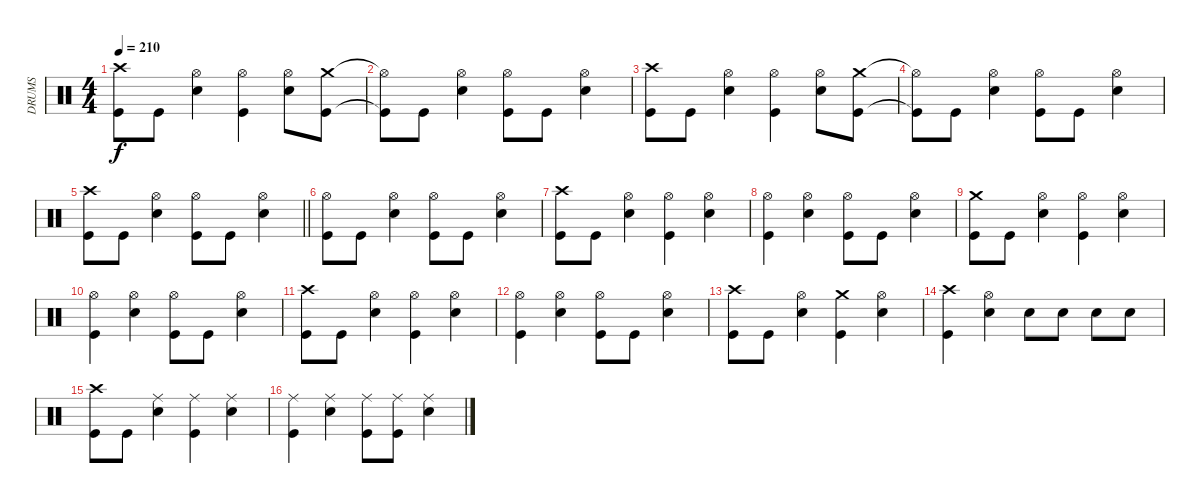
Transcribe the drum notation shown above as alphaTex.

\track ("DRUMS" "DRUMS") {instrument percussion}
\staff {score}
\articulation defaults
\ts (4 4)
\tempo 210
\clef neutral
\ks c
("Crash high (hit)" "Kick (hit)").8{dy f} "Kick (hit)".8 ("Hi-Hat (open)" "Snare (hit) 2").4 ("Hi-Hat (open)" "Kick (hit)").4 ("Hi-Hat (open)" "Snare (hit) 2").8 ("Crash medium (hit)" "Kick (hit)").8 |
("Hi-Hat (open)"{t} "Kick (hit)"{t}).8 "Kick (hit)".8 ("Hi-Hat (open)" "Snare (hit) 2").4 ("Hi-Hat (open)" "Kick (hit)").8 "Kick (hit)".8 ("Hi-Hat (open)" "Snare (hit) 2").4 |
("Crash high (hit)" "Kick (hit)").8 "Kick (hit)".8 ("Hi-Hat (open)" "Snare (hit) 2").4 ("Hi-Hat (open)" "Kick (hit)").4 ("Hi-Hat (open)" "Snare (hit) 2").8 ("Crash medium (hit)" "Kick (hit)").8 |
("Hi-Hat (open)"{t} "Kick (hit)"{t}).8 "Kick (hit)".8 ("Hi-Hat (open)" "Snare (hit) 2").4 ("Hi-Hat (open)" "Kick (hit)").8 "Kick (hit)".8 ("Hi-Hat (open)" "Snare (hit) 2").4 |
\barLineRight lightlight
("Crash high (hit)" "Kick (hit)").8 "Kick (hit)".8 ("Hi-Hat (open)" "Snare (hit) 2").4 ("Hi-Hat (open)" "Kick (hit)").8 "Kick (hit)".8 ("Hi-Hat (open)" "Snare (hit) 2").4 |
("Hi-Hat (open)" "Kick (hit)").8 "Kick (hit)".8 ("Hi-Hat (open)" "Snare (hit) 2").4 ("Hi-Hat (open)" "Kick (hit)").8 "Kick (hit)".8 ("Hi-Hat (open)" "Snare (hit) 2").4 |
("Crash high (hit)" "Kick (hit)").8 "Kick (hit)".8 ("Hi-Hat (open)" "Snare (hit) 2").4 ("Hi-Hat (open)" "Kick (hit)").4 ("Hi-Hat (open)" "Snare (hit) 2").4 |
("Hi-Hat (open)" "Kick (hit)").4 ("Hi-Hat (open)" "Snare (hit) 2").4 ("Hi-Hat (open)" "Kick (hit)").8 "Kick (hit)".8 ("Hi-Hat (open)" "Snare (hit) 2").4 |
("Crash medium (hit)" "Kick (hit)").8 "Kick (hit)".8 ("Hi-Hat (open)" "Snare (hit) 2").4 ("Hi-Hat (open)" "Kick (hit)").4 ("Hi-Hat (open)" "Snare (hit) 2").4 |
("Hi-Hat (open)" "Kick (hit)").4 ("Hi-Hat (open)" "Snare (hit) 2").4 ("Hi-Hat (open)" "Kick (hit)").8 "Kick (hit)".8 ("Hi-Hat (open)" "Snare (hit) 2").4 |
("Crash high (hit)" "Kick (hit)").8 "Kick (hit)".8 ("Hi-Hat (open)" "Snare (hit) 2").4 ("Hi-Hat (open)" "Kick (hit)").4 ("Hi-Hat (open)" "Snare (hit) 2").4 |
("Hi-Hat (open)" "Kick (hit)").4 ("Hi-Hat (open)" "Snare (hit) 2").4 ("Hi-Hat (open)" "Kick (hit)").8 "Kick (hit)".8 ("Hi-Hat (open)" "Snare (hit) 2").4 |
("Crash high (hit)" "Kick (hit)").8 "Kick (hit)".8 ("Hi-Hat (open)" "Snare (hit) 2").4 ("Crash medium (hit)" "Kick (hit)").4 ("Hi-Hat (open)" "Snare (hit) 2").4 |
("Crash high (hit)" "Kick (hit)").4 ("Hi-Hat (open)" "Snare (hit) 2").4 "Snare (hit) 2".8 "Snare (hit) 2".8 "Snare (hit) 2".8 "Snare (hit) 2".8 |
("Crash high (hit)" "Kick (hit)").8 "Kick (hit)".8 ("Ride (middle)" "Snare (hit) 2").4 ("Ride (middle)" "Kick (hit)").4 ("Ride (middle)" "Snare (hit) 2").4 |
("Ride (middle)" "Kick (hit)").4 ("Ride (middle)" "Snare (hit) 2").4 ("Ride (middle)" "Kick (hit)").8 ("Ride (middle)" "Kick (hit)").8 ("Ride (middle)" "Snare (hit) 2").4
